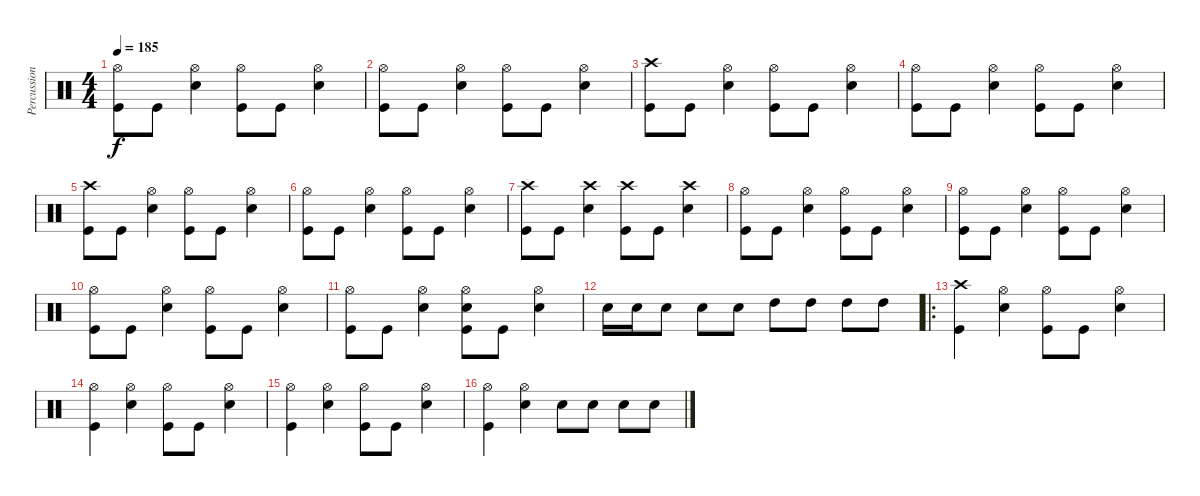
\track ("Percussion" "Percussion") {instrument percussion}
\staff {score}
\articulation defaults
\ts (4 4)
\tempo 185
\clef neutral
\ks c
("Hi-Hat (open)" "Kick (hit)").8{dy f} "Kick (hit)".8 ("Hi-Hat (open)" "Snare (hit) 2").4 ("Hi-Hat (open)" "Kick (hit)").8 "Kick (hit)".8 ("Hi-Hat (open)" "Snare (hit) 2").4 |
("Hi-Hat (open)" "Kick (hit)").8 "Kick (hit)".8 ("Hi-Hat (open)" "Snare (hit) 2").4 ("Hi-Hat (open)" "Kick (hit)").8 "Kick (hit)".8 ("Hi-Hat (open)" "Snare (hit) 2").4 |
("Crash high (hit)" "Kick (hit)").8 "Kick (hit)".8 ("Hi-Hat (open)" "Snare (hit) 2").4 ("Hi-Hat (open)" "Kick (hit)").8 "Kick (hit)".8 ("Hi-Hat (open)" "Snare (hit) 2").4 |
("Hi-Hat (open)" "Kick (hit)").8 "Kick (hit)".8 ("Hi-Hat (open)" "Snare (hit) 2").4 ("Hi-Hat (open)" "Kick (hit)").8 "Kick (hit)".8 ("Hi-Hat (open)" "Snare (hit) 2").4 |
("Crash high (hit)" "Kick (hit)").8 "Kick (hit)".8 ("Hi-Hat (open)" "Snare (hit) 2").4 ("Hi-Hat (open)" "Kick (hit)").8 "Kick (hit)".8 ("Hi-Hat (open)" "Snare (hit) 2").4 |
("Hi-Hat (open)" "Kick (hit)").8 "Kick (hit)".8 ("Hi-Hat (open)" "Snare (hit) 2").4 ("Hi-Hat (open)" "Kick (hit)").8 "Kick (hit)".8 ("Hi-Hat (open)" "Snare (hit) 2").4 |
("Crash high (hit)" "Kick (hit)").8 "Kick (hit)".8 ("Crash high (hit)" "Snare (hit) 2").4 ("Crash high (hit)" "Kick (hit)").8 "Kick (hit)".8 ("Crash high (hit)" "Snare (hit) 2").4 |
("Hi-Hat (open)" "Kick (hit)").8 "Kick (hit)".8 ("Hi-Hat (open)" "Snare (hit) 2").4 ("Hi-Hat (open)" "Kick (hit)").8 "Kick (hit)".8 ("Hi-Hat (open)" "Snare (hit) 2").4 |
("Hi-Hat (open)" "Kick (hit)").8 "Kick (hit)".8 ("Hi-Hat (open)" "Snare (hit) 2").4 ("Hi-Hat (open)" "Kick (hit)").8 "Kick (hit)".8 ("Hi-Hat (open)" "Snare (hit) 2").4 |
("Hi-Hat (open)" "Kick (hit)").8 "Kick (hit)".8 ("Hi-Hat (open)" "Snare (hit) 2").4 ("Hi-Hat (open)" "Kick (hit)").8 "Kick (hit)".8 ("Hi-Hat (open)" "Snare (hit) 2").4 |
("Hi-Hat (open)" "Kick (hit)").8 "Kick (hit)".8 ("Hi-Hat (open)" "Snare (hit) 2").4 ("Hi-Hat (open)" "Kick (hit)" "Snare (hit) 2").8 "Kick (hit)".8 ("Hi-Hat (open)" "Snare (hit) 2").4 |
"Snare (hit) 2".16 "Snare (hit) 2".16 "Snare (hit) 2".8 "Snare (hit) 2".8 "Snare (hit) 2".8 "High Tom (hit)".8 "High Tom (hit)".8 "High Tom (hit)".8 "High Tom (hit)".8 |
\ro
("Crash high (hit)" "Kick (hit)").4 ("Hi-Hat (open)" "Snare (hit) 2").4 ("Hi-Hat (open)" "Kick (hit)").8 "Kick (hit)".8 ("Hi-Hat (open)" "Snare (hit) 2").4 |
("Hi-Hat (open)" "Kick (hit)").4 ("Hi-Hat (open)" "Snare (hit) 2").4 ("Hi-Hat (open)" "Kick (hit)").8 "Kick (hit)".8 ("Hi-Hat (open)" "Snare (hit) 2").4 |
("Hi-Hat (open)" "Kick (hit)").4 ("Hi-Hat (open)" "Snare (hit) 2").4 ("Hi-Hat (open)" "Kick (hit)").8 "Kick (hit)".8 ("Hi-Hat (open)" "Snare (hit) 2").4 |
("Hi-Hat (open)" "Kick (hit)").4 ("Hi-Hat (open)" "Snare (hit) 2").4 "Snare (hit) 2".8 "Snare (hit) 2".8 "Snare (hit) 2".8 "Snare (hit) 2".8
